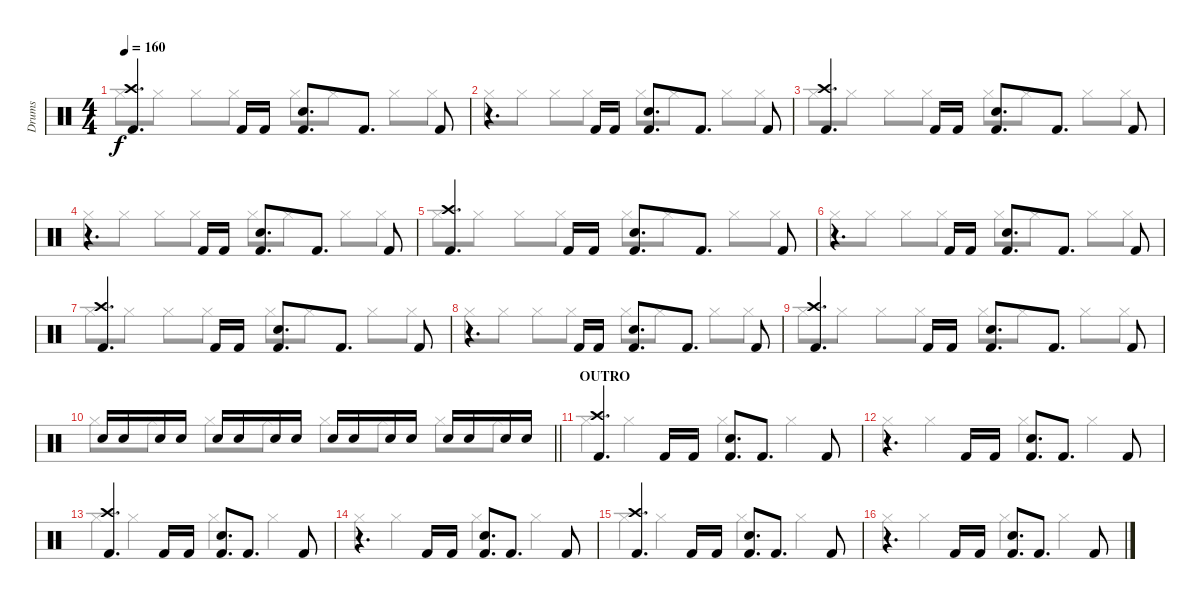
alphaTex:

\track ("Drums" "Drums") {instrument percussion}
\staff {score}
\articulation defaults
\voice
\ts (4 4)
\tempo 160
\clef neutral
\ks c
("Crash high (hit)" "Kick (hit) 2").4{d dy f} "Kick (hit) 2".16 "Kick (hit) 2".16 ("Snare (hit) 2" "Kick (hit) 2").8{d} "Kick (hit) 2".8{d} "Kick (hit) 2".8 |
r.4{d} "Kick (hit) 2".16 "Kick (hit) 2".16 ("Snare (hit) 2" "Kick (hit) 2").8{d} "Kick (hit) 2".8{d} "Kick (hit) 2".8 |
("Crash high (hit)" "Kick (hit) 2").4{d} "Kick (hit) 2".16 "Kick (hit) 2".16 ("Snare (hit) 2" "Kick (hit) 2").8{d} "Kick (hit) 2".8{d} "Kick (hit) 2".8 |
r.4{d} "Kick (hit) 2".16 "Kick (hit) 2".16 ("Snare (hit) 2" "Kick (hit) 2").8{d} "Kick (hit) 2".8{d} "Kick (hit) 2".8 |
("Crash high (hit)" "Kick (hit) 2").4{d} "Kick (hit) 2".16 "Kick (hit) 2".16 ("Snare (hit) 2" "Kick (hit) 2").8{d} "Kick (hit) 2".8{d} "Kick (hit) 2".8 |
r.4{d} "Kick (hit) 2".16 "Kick (hit) 2".16 ("Snare (hit) 2" "Kick (hit) 2").8{d} "Kick (hit) 2".8{d} "Kick (hit) 2".8 |
("Crash high (hit)" "Kick (hit) 2").4{d} "Kick (hit) 2".16 "Kick (hit) 2".16 ("Snare (hit) 2" "Kick (hit) 2").8{d} "Kick (hit) 2".8{d} "Kick (hit) 2".8 |
r.4{d} "Kick (hit) 2".16 "Kick (hit) 2".16 ("Snare (hit) 2" "Kick (hit) 2").8{d} "Kick (hit) 2".8{d} "Kick (hit) 2".8 |
("Crash high (hit)" "Kick (hit) 2").4{d} "Kick (hit) 2".16 "Kick (hit) 2".16 ("Snare (hit) 2" "Kick (hit) 2").8{d} "Kick (hit) 2".8{d} "Kick (hit) 2".8 |
\barLineRight lightlight "Snare (hit) 2".16 "Snare (hit) 2".16 "Snare (hit) 2".16 "Snare (hit) 2".16 "Snare (hit) 2".16 "Snare (hit) 2".16 "Snare (hit) 2".16 "Snare (hit) 2".16 "Snare (hit) 2".16 "Snare (hit) 2".16 "Snare (hit) 2".16 "Snare (hit) 2".16 "Snare (hit) 2".16 "Snare (hit) 2".16 "Snare (hit) 2".16 "Snare (hit) 2".16
|
\section ("" "OUTRO")
("Crash high (hit)" "Kick (hit) 2").4{d} "Kick (hit) 2".16 "Kick (hit) 2".16 ("Snare (hit) 2" "Kick (hit) 2").8{d} "Kick (hit) 2".8{d} "Kick (hit) 2".8 |
r.4{d} "Kick (hit) 2".16 "Kick (hit) 2".16 ("Snare (hit) 2" "Kick (hit) 2").8{d} "Kick (hit) 2".8{d} "Kick (hit) 2".8 |
("Crash high (hit)" "Kick (hit) 2").4{d} "Kick (hit) 2".16 "Kick (hit) 2".16 ("Snare (hit) 2" "Kick (hit) 2").8{d} "Kick (hit) 2".8{d} "Kick (hit) 2".8 |
r.4{d} "Kick (hit) 2".16 "Kick (hit) 2".16 ("Snare (hit) 2" "Kick (hit) 2").8{d} "Kick (hit) 2".8{d} "Kick (hit) 2".8 |
("Crash high (hit)" "Kick (hit) 2").4{d} "Kick (hit) 2".16 "Kick (hit) 2".16 ("Snare (hit) 2" "Kick (hit) 2").8{d} "Kick (hit) 2".8{d} "Kick (hit) 2".8 |
r.4{d} "Kick (hit) 2".16 "Kick (hit) 2".16 ("Snare (hit) 2" "Kick (hit) 2").8{d} "Kick (hit) 2".8{d} "Kick (hit) 2".8
\voice
\clef neutral
\ottava regular
\simile none
\ks c "Hi-Hat (closed)".8{dy f} "Hi-Hat (closed)".8 "Hi-Hat (closed)".8 "Hi-Hat (closed)".8 "Hi-Hat (closed)".8 "Hi-Hat (closed)".8 "Hi-Hat (closed)".8 "Hi-Hat (closed)".8
|
"Hi-Hat (closed)".8 "Hi-Hat (closed)".8 "Hi-Hat (closed)".8 "Hi-Hat (closed)".8 "Hi-Hat (closed)".8 "Hi-Hat (closed)".8 "Hi-Hat (closed)".8 "Hi-Hat (closed)".8 |
"Hi-Hat (closed)".8 "Hi-Hat (closed)".8 "Hi-Hat (closed)".8 "Hi-Hat (closed)".8 "Hi-Hat (closed)".8 "Hi-Hat (closed)".8 "Hi-Hat (closed)".8 "Hi-Hat (closed)".8 |
"Hi-Hat (closed)".8 "Hi-Hat (closed)".8 "Hi-Hat (closed)".8 "Hi-Hat (closed)".8 "Hi-Hat (closed)".8 "Hi-Hat (closed)".8 "Hi-Hat (closed)".8 "Hi-Hat (closed)".8 |
"Hi-Hat (closed)".8 "Hi-Hat (closed)".8 "Hi-Hat (closed)".8 "Hi-Hat (closed)".8 "Hi-Hat (closed)".8 "Hi-Hat (closed)".8 "Hi-Hat (closed)".8 "Hi-Hat (closed)".8 |
"Hi-Hat (closed)".8 "Hi-Hat (closed)".8 "Hi-Hat (closed)".8 "Hi-Hat (closed)".8 "Hi-Hat (closed)".8 "Hi-Hat (closed)".8 "Hi-Hat (closed)".8 "Hi-Hat (closed)".8 |
"Hi-Hat (closed)".8 "Hi-Hat (closed)".8 "Hi-Hat (closed)".8 "Hi-Hat (closed)".8 "Hi-Hat (closed)".8 "Hi-Hat (closed)".8 "Hi-Hat (closed)".8 "Hi-Hat (closed)".8 |
"Hi-Hat (closed)".8 "Hi-Hat (closed)".8 "Hi-Hat (closed)".8 "Hi-Hat (closed)".8 "Hi-Hat (closed)".8 "Hi-Hat (closed)".8 "Hi-Hat (closed)".8 "Hi-Hat (closed)".8 |
"Hi-Hat (closed)".8 "Hi-Hat (closed)".8 "Hi-Hat (closed)".8 "Hi-Hat (closed)".8 "Hi-Hat (closed)".8 "Hi-Hat (closed)".8 "Hi-Hat (closed)".8 "Hi-Hat (closed)".8 |
\barLineRight lightlight "Hi-Hat (closed)".8 "Hi-Hat (closed)".8 "Hi-Hat (closed)".8 "Hi-Hat (closed)".8 "Hi-Hat (closed)".8 "Hi-Hat (closed)".8 "Hi-Hat (closed)".8 "Hi-Hat (closed)".8
|
"Hi-Hat (closed)".4 "Hi-Hat (closed)".4 "Hi-Hat (closed)".4 "Hi-Hat (closed)".4 |
"Hi-Hat (closed)".4 "Hi-Hat (closed)".4 "Hi-Hat (closed)".4 "Hi-Hat (closed)".4 |
"Hi-Hat (closed)".4 "Hi-Hat (closed)".4 "Hi-Hat (closed)".4 "Hi-Hat (closed)".4 |
"Hi-Hat (closed)".4 "Hi-Hat (closed)".4 "Hi-Hat (closed)".4 "Hi-Hat (closed)".4 |
"Hi-Hat (closed)".4 "Hi-Hat (closed)".4 "Hi-Hat (closed)".4 "Hi-Hat (closed)".4 |
"Hi-Hat (closed)".4 "Hi-Hat (closed)".4 "Hi-Hat (closed)".4 "Hi-Hat (closed)".4
